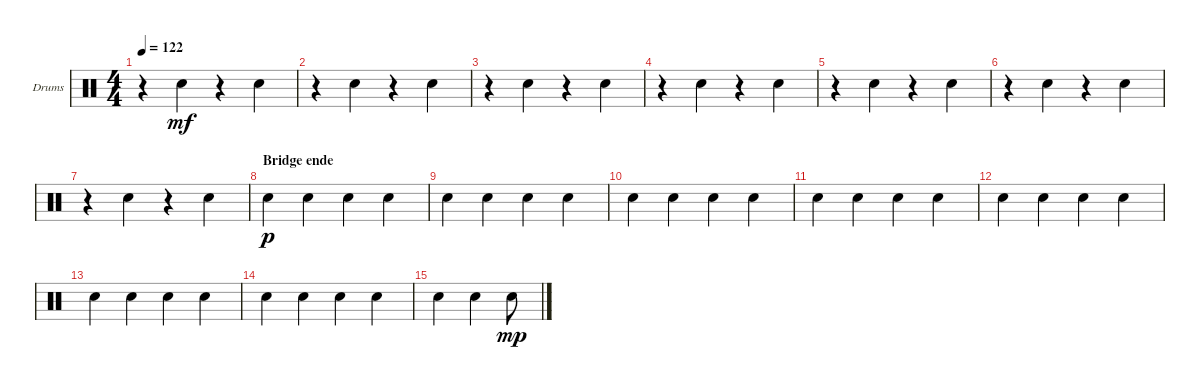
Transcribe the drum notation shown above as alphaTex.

\defaultSystemsLayout 4
\bracketExtendMode groupsimilarinstruments
\firstSystemTrackNameOrientation horizontal
\otherSystemsTrackNameOrientation horizontal
\track ("Drumkit" "Drums") {instrument percussion}
\staff {score}
\articulation defaults
\ts (4 4)
\tempo 122
\clef neutral
\ks c
r.4{dy mf} "Snare (hit) 2".4 r.4 "Snare (hit) 2".4 |
r.4 "Snare (hit) 2".4 r.4 "Snare (hit) 2".4 |
r.4 "Snare (hit) 2".4 r.4 "Snare (hit) 2".4 |
r.4 "Snare (hit) 2".4 r.4 "Snare (hit) 2".4 |
r.4 "Snare (hit) 2".4 r.4 "Snare (hit) 2".4 |
r.4 "Snare (hit) 2".4 r.4 "Snare (hit) 2".4 |
r.4 "Snare (hit) 2".4 r.4 "Snare (hit) 2".4 |
\section ("" "Bridge ende")
"Snare (hit) 2".4{dy p} "Snare (hit) 2".4 "Snare (hit) 2".4 "Snare (hit) 2".4 |
"Snare (hit) 2".4 "Snare (hit) 2".4 "Snare (hit) 2".4 "Snare (hit) 2".4 |
"Snare (hit) 2".4 "Snare (hit) 2".4 "Snare (hit) 2".4 "Snare (hit) 2".4 |
"Snare (hit) 2".4 "Snare (hit) 2".4 "Snare (hit) 2".4 "Snare (hit) 2".4 |
"Snare (hit) 2".4 "Snare (hit) 2".4 "Snare (hit) 2".4 "Snare (hit) 2".4 |
"Snare (hit) 2".4 "Snare (hit) 2".4 "Snare (hit) 2".4 "Snare (hit) 2".4 |
"Snare (hit) 2".4 "Snare (hit) 2".4 "Snare (hit) 2".4 "Snare (hit) 2".4 |
"Snare (hit) 2".4 "Snare (hit) 2".4 "Snare (hit) 2".8{dy mp}
